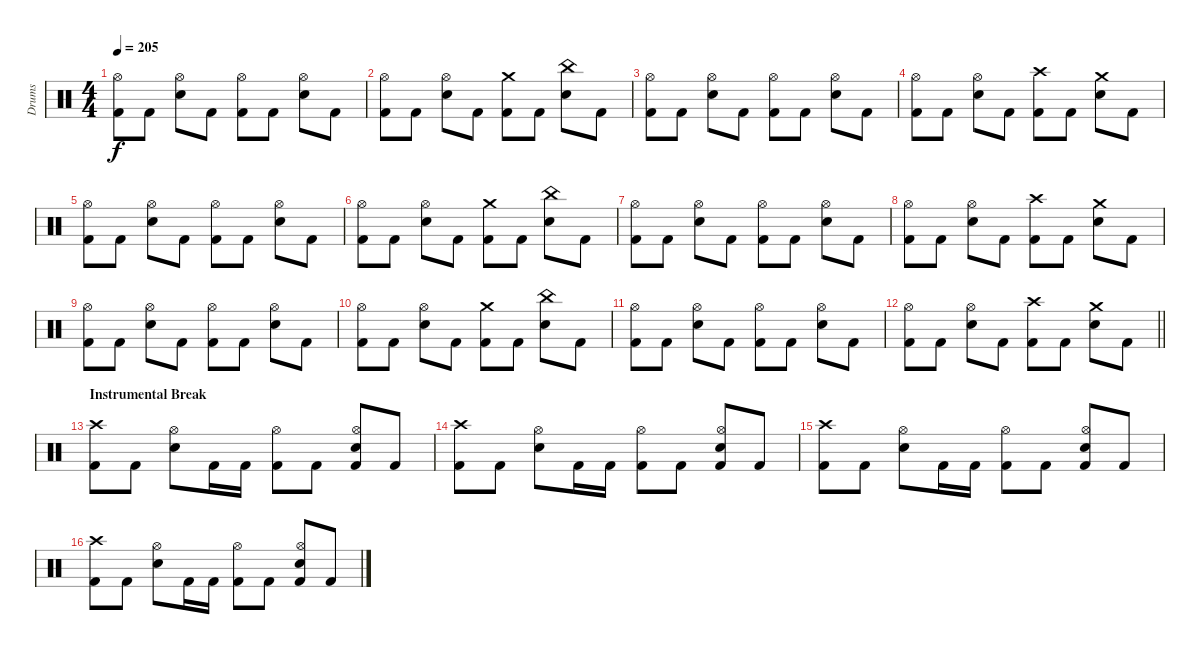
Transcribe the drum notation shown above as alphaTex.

\track ("Drums" "Drums") {instrument percussion}
\staff {score}
\articulation defaults
\ts (4 4)
\tempo 205
\clef neutral
\ks c
("Kick (hit) 2" "Hi-Hat (open)").8{dy f} "Kick (hit) 2".8 ("Snare (hit) 2" "Hi-Hat (open)").8 "Kick (hit) 2".8 ("Kick (hit) 2" "Hi-Hat (open)").8 "Kick (hit) 2".8 ("Snare (hit) 2" "Hi-Hat (open)").8 "Kick (hit) 2".8 |
("Kick (hit) 2" "Hi-Hat (open)").8 "Kick (hit) 2".8 ("Snare (hit) 2" "Hi-Hat (open)").8 "Kick (hit) 2".8 ("Kick (hit) 2" "Crash medium (hit)").8 "Kick (hit) 2".8 ("Snare (hit) 2" "China (hit)").8 "Kick (hit) 2".8 |
("Kick (hit) 2" "Hi-Hat (open)").8 "Kick (hit) 2".8 ("Snare (hit) 2" "Hi-Hat (open)").8 "Kick (hit) 2".8 ("Kick (hit) 2" "Hi-Hat (open)").8 "Kick (hit) 2".8 ("Snare (hit) 2" "Hi-Hat (open)").8 "Kick (hit) 2".8 |
("Kick (hit) 2" "Hi-Hat (open)").8 "Kick (hit) 2".8 ("Snare (hit) 2" "Hi-Hat (open)").8 "Kick (hit) 2".8 ("Kick (hit) 2" "Crash high (hit)").8 "Kick (hit) 2".8 ("Snare (hit) 2" "Crash medium (hit)").8 "Kick (hit) 2".8 |
("Kick (hit) 2" "Hi-Hat (open)").8 "Kick (hit) 2".8 ("Snare (hit) 2" "Hi-Hat (open)").8 "Kick (hit) 2".8 ("Kick (hit) 2" "Hi-Hat (open)").8 "Kick (hit) 2".8 ("Snare (hit) 2" "Hi-Hat (open)").8 "Kick (hit) 2".8 |
("Kick (hit) 2" "Hi-Hat (open)").8 "Kick (hit) 2".8 ("Snare (hit) 2" "Hi-Hat (open)").8 "Kick (hit) 2".8 ("Kick (hit) 2" "Crash medium (hit)").8 "Kick (hit) 2".8 ("Snare (hit) 2" "China (hit)").8 "Kick (hit) 2".8 |
("Kick (hit) 2" "Hi-Hat (open)").8 "Kick (hit) 2".8 ("Snare (hit) 2" "Hi-Hat (open)").8 "Kick (hit) 2".8 ("Kick (hit) 2" "Hi-Hat (open)").8 "Kick (hit) 2".8 ("Snare (hit) 2" "Hi-Hat (open)").8 "Kick (hit) 2".8 |
("Kick (hit) 2" "Hi-Hat (open)").8 "Kick (hit) 2".8 ("Snare (hit) 2" "Hi-Hat (open)").8 "Kick (hit) 2".8 ("Kick (hit) 2" "Crash high (hit)").8 "Kick (hit) 2".8 ("Snare (hit) 2" "Crash medium (hit)").8 "Kick (hit) 2".8 |
("Kick (hit) 2" "Hi-Hat (open)").8 "Kick (hit) 2".8 ("Snare (hit) 2" "Hi-Hat (open)").8 "Kick (hit) 2".8 ("Kick (hit) 2" "Hi-Hat (open)").8 "Kick (hit) 2".8 ("Snare (hit) 2" "Hi-Hat (open)").8 "Kick (hit) 2".8 |
("Kick (hit) 2" "Hi-Hat (open)").8 "Kick (hit) 2".8 ("Snare (hit) 2" "Hi-Hat (open)").8 "Kick (hit) 2".8 ("Kick (hit) 2" "Crash medium (hit)").8 "Kick (hit) 2".8 ("Snare (hit) 2" "China (hit)").8 "Kick (hit) 2".8 |
("Kick (hit) 2" "Hi-Hat (open)").8 "Kick (hit) 2".8 ("Snare (hit) 2" "Hi-Hat (open)").8 "Kick (hit) 2".8 ("Kick (hit) 2" "Hi-Hat (open)").8 "Kick (hit) 2".8 ("Snare (hit) 2" "Hi-Hat (open)").8 "Kick (hit) 2".8 |
\barLineRight lightlight
("Kick (hit) 2" "Hi-Hat (open)").8 "Kick (hit) 2".8 ("Snare (hit) 2" "Hi-Hat (open)").8 "Kick (hit) 2".8 ("Kick (hit) 2" "Crash high (hit)").8 "Kick (hit) 2".8 ("Snare (hit) 2" "Crash medium (hit)").8 "Kick (hit) 2".8 |
\section ("" "Instrumental Break")
("Kick (hit) 2" "Crash high (hit)").8 "Kick (hit) 2".8 ("Hi-Hat (open)" "Snare (hit) 2").8 "Kick (hit) 2".16 "Kick (hit) 2".16 ("Kick (hit) 2" "Hi-Hat (open)").8 "Kick (hit) 2".8 ("Kick (hit) 2" "Hi-Hat (open)" "Snare (hit) 2").8 "Kick (hit) 2".8 |
("Kick (hit) 2" "Crash high (hit)").8 "Kick (hit) 2".8 ("Hi-Hat (open)" "Snare (hit) 2").8 "Kick (hit) 2".16 "Kick (hit) 2".16 ("Kick (hit) 2" "Hi-Hat (open)").8 "Kick (hit) 2".8 ("Kick (hit) 2" "Hi-Hat (open)" "Snare (hit) 2").8 "Kick (hit) 2".8 |
("Kick (hit) 2" "Crash high (hit)").8 "Kick (hit) 2".8 ("Hi-Hat (open)" "Snare (hit) 2").8 "Kick (hit) 2".16 "Kick (hit) 2".16 ("Kick (hit) 2" "Hi-Hat (open)").8 "Kick (hit) 2".8 ("Kick (hit) 2" "Hi-Hat (open)" "Snare (hit) 2").8 "Kick (hit) 2".8 |
("Kick (hit) 2" "Crash high (hit)").8 "Kick (hit) 2".8 ("Hi-Hat (open)" "Snare (hit) 2").8 "Kick (hit) 2".16 "Kick (hit) 2".16 ("Kick (hit) 2" "Hi-Hat (open)").8 "Kick (hit) 2".8 ("Kick (hit) 2" "Hi-Hat (open)" "Snare (hit) 2").8 "Kick (hit) 2".8
